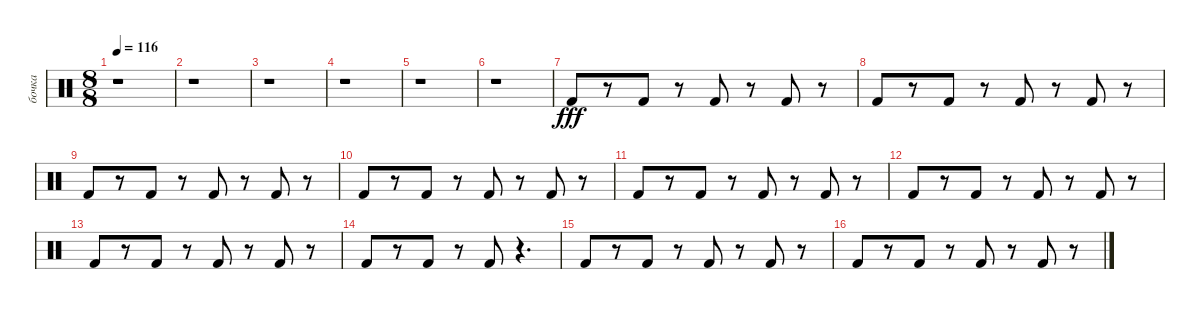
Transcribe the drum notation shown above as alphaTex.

\track ("бочка" "бочка") {instrument percussion}
\staff {score}
\articulation defaults
\ts (8 8)
\tempo 116
\clef neutral
\ks c
r.1{dy fff} |
r.1 |
r.1 |
r.1 |
r.1 |
r.1 |
"Kick (hit) 2".8 r.8 "Kick (hit) 2".8 r.8 "Kick (hit) 2".8 r.8 "Kick (hit) 2".8 r.8 |
"Kick (hit) 2".8 r.8 "Kick (hit) 2".8 r.8 "Kick (hit) 2".8 r.8 "Kick (hit) 2".8 r.8 |
"Kick (hit) 2".8 r.8 "Kick (hit) 2".8 r.8 "Kick (hit) 2".8 r.8 "Kick (hit) 2".8 r.8 |
"Kick (hit) 2".8 r.8 "Kick (hit) 2".8 r.8 "Kick (hit) 2".8 r.8 "Kick (hit) 2".8 r.8 |
"Kick (hit) 2".8 r.8 "Kick (hit) 2".8 r.8 "Kick (hit) 2".8 r.8 "Kick (hit) 2".8 r.8 |
"Kick (hit) 2".8 r.8 "Kick (hit) 2".8 r.8 "Kick (hit) 2".8 r.8 "Kick (hit) 2".8 r.8 |
"Kick (hit) 2".8 r.8 "Kick (hit) 2".8 r.8 "Kick (hit) 2".8 r.8 "Kick (hit) 2".8 r.8 |
"Kick (hit) 2".8 r.8 "Kick (hit) 2".8 r.8 "Kick (hit) 2".8 r.4{d} |
"Kick (hit) 2".8 r.8 "Kick (hit) 2".8 r.8 "Kick (hit) 2".8 r.8 "Kick (hit) 2".8 r.8 |
"Kick (hit) 2".8 r.8 "Kick (hit) 2".8 r.8 "Kick (hit) 2".8 r.8 "Kick (hit) 2".8 r.8
